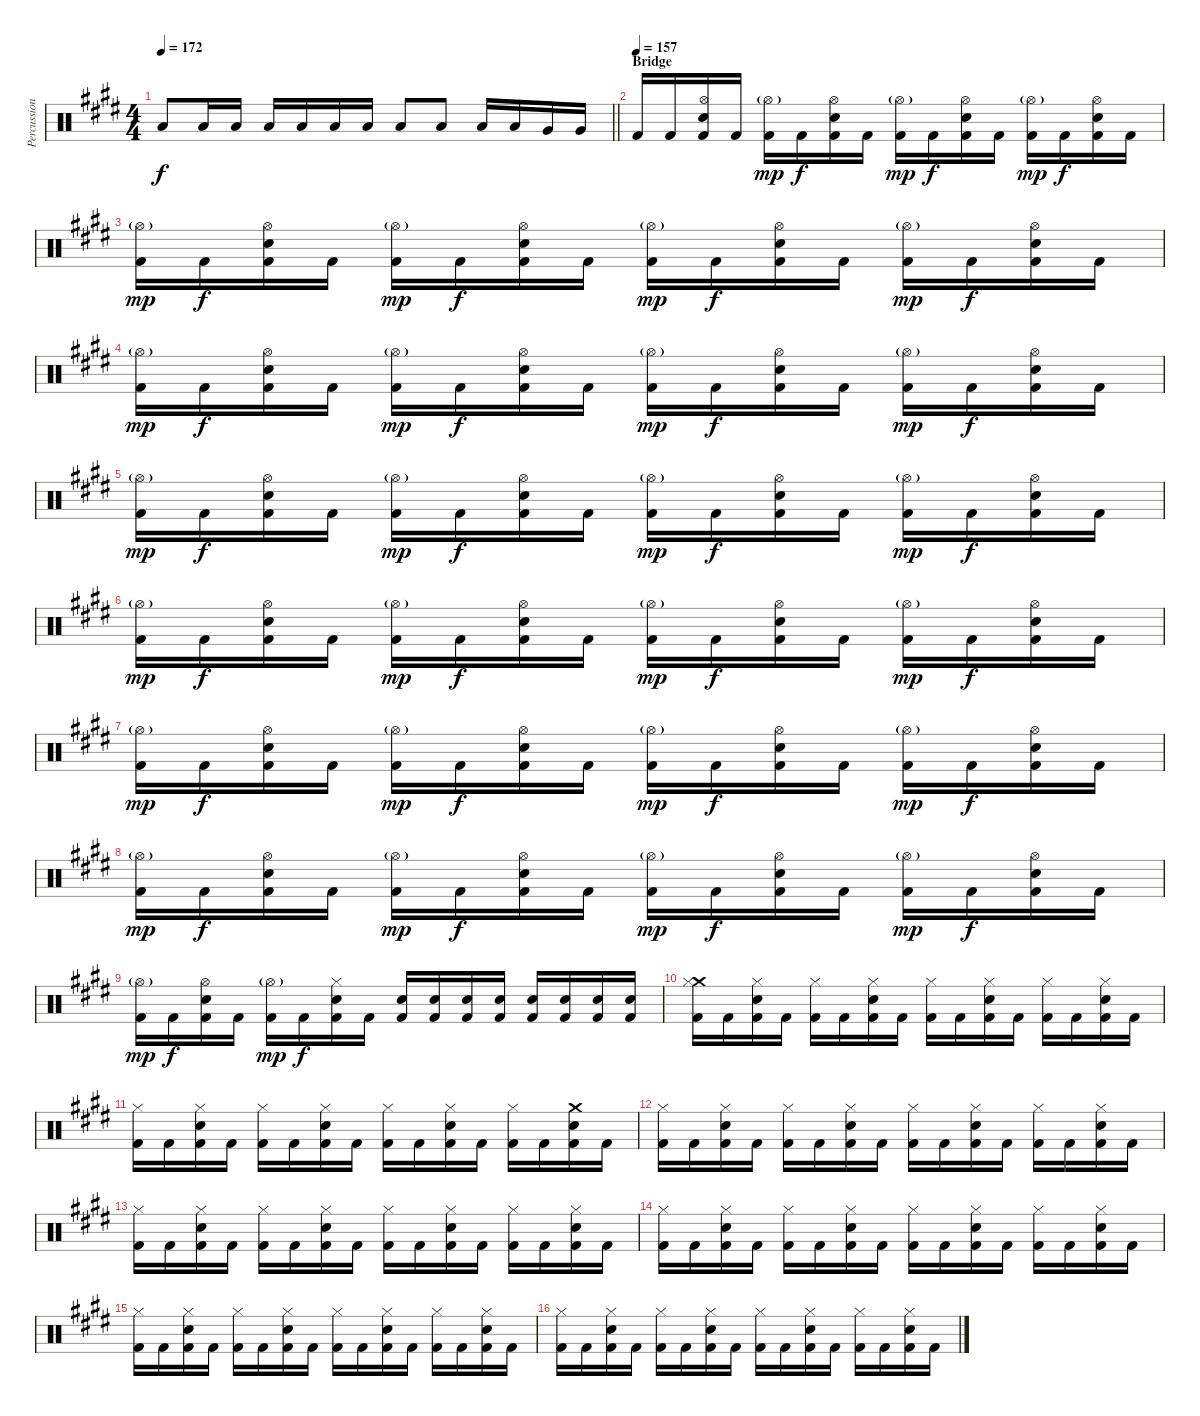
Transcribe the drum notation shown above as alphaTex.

\track ("Percussion (Thomen Stauch)" "Percussion") {instrument percussion}
\staff {score}
\articulation defaults
\ts (4 4)
\tempo 172
\clef neutral
\barLineRight lightlight
\ks c#minor "Low Tom (hit)".8{dy f} "Low Tom (hit)".16 "Low Tom (hit)".16 "Low Tom (hit)".16 "Low Tom (hit)".16 "Low Tom (hit)".16 "Low Tom (hit)".16 "Low Tom (hit)".8 "Low Tom (hit)".8 "Low Tom (hit)".16 "Low Tom (hit)".16 "Very Low Tom (hit)".16 "Very Low Tom (hit)".16
|
\section ("" "Bridge")
\tempo (157)
"Kick (hit) 2".16 "Kick (hit) 2".16 ("Hi-Hat (open)" "Snare (hit) 2" "Kick (hit) 2").16 "Kick (hit) 2".16 ("Hi-Hat (open)"{g} "Kick (hit) 2").16{dy mp} "Kick (hit) 2".16{dy f} ("Hi-Hat (open)" "Snare (hit) 2" "Kick (hit) 2").16 "Kick (hit) 2".16 ("Hi-Hat (open)"{g} "Kick (hit) 2").16{dy mp} "Kick (hit) 2".16{dy f} ("Hi-Hat (open)" "Snare (hit) 2" "Kick (hit) 2").16 "Kick (hit) 2".16 ("Hi-Hat (open)"{g} "Kick (hit) 2").16{dy mp} "Kick (hit) 2".16{dy f} ("Hi-Hat (open)" "Snare (hit) 2" "Kick (hit) 2").16 "Kick (hit) 2".16 |
("Hi-Hat (open)"{g} "Kick (hit) 2").16{dy mp} "Kick (hit) 2".16{dy f} ("Hi-Hat (open)" "Snare (hit) 2" "Kick (hit) 2").16 "Kick (hit) 2".16 ("Hi-Hat (open)"{g} "Kick (hit) 2").16{dy mp} "Kick (hit) 2".16{dy f} ("Hi-Hat (open)" "Snare (hit) 2" "Kick (hit) 2").16 "Kick (hit) 2".16 ("Hi-Hat (open)"{g} "Kick (hit) 2").16{dy mp} "Kick (hit) 2".16{dy f} ("Hi-Hat (open)" "Snare (hit) 2" "Kick (hit) 2").16 "Kick (hit) 2".16 ("Hi-Hat (open)"{g} "Kick (hit) 2").16{dy mp} "Kick (hit) 2".16{dy f} ("Hi-Hat (open)" "Snare (hit) 2" "Kick (hit) 2").16 "Kick (hit) 2".16 |
("Hi-Hat (open)"{g} "Kick (hit) 2").16{dy mp} "Kick (hit) 2".16{dy f} ("Hi-Hat (open)" "Snare (hit) 2" "Kick (hit) 2").16 "Kick (hit) 2".16 ("Hi-Hat (open)"{g} "Kick (hit) 2").16{dy mp} "Kick (hit) 2".16{dy f} ("Hi-Hat (open)" "Snare (hit) 2" "Kick (hit) 2").16 "Kick (hit) 2".16 ("Hi-Hat (open)"{g} "Kick (hit) 2").16{dy mp} "Kick (hit) 2".16{dy f} ("Hi-Hat (open)" "Snare (hit) 2" "Kick (hit) 2").16 "Kick (hit) 2".16 ("Hi-Hat (open)"{g} "Kick (hit) 2").16{dy mp} "Kick (hit) 2".16{dy f} ("Hi-Hat (open)" "Snare (hit) 2" "Kick (hit) 2").16 "Kick (hit) 2".16 |
("Hi-Hat (open)"{g} "Kick (hit) 2").16{dy mp} "Kick (hit) 2".16{dy f} ("Hi-Hat (open)" "Snare (hit) 2" "Kick (hit) 2").16 "Kick (hit) 2".16 ("Hi-Hat (open)"{g} "Kick (hit) 2").16{dy mp} "Kick (hit) 2".16{dy f} ("Hi-Hat (open)" "Snare (hit) 2" "Kick (hit) 2").16 "Kick (hit) 2".16 ("Hi-Hat (open)"{g} "Kick (hit) 2").16{dy mp} "Kick (hit) 2".16{dy f} ("Hi-Hat (open)" "Snare (hit) 2" "Kick (hit) 2").16 "Kick (hit) 2".16 ("Hi-Hat (open)"{g} "Kick (hit) 2").16{dy mp} "Kick (hit) 2".16{dy f} ("Hi-Hat (open)" "Snare (hit) 2" "Kick (hit) 2").16 "Kick (hit) 2".16 |
("Hi-Hat (open)"{g} "Kick (hit) 2").16{dy mp} "Kick (hit) 2".16{dy f} ("Hi-Hat (open)" "Snare (hit) 2" "Kick (hit) 2").16 "Kick (hit) 2".16 ("Hi-Hat (open)"{g} "Kick (hit) 2").16{dy mp} "Kick (hit) 2".16{dy f} ("Hi-Hat (open)" "Snare (hit) 2" "Kick (hit) 2").16 "Kick (hit) 2".16 ("Hi-Hat (open)"{g} "Kick (hit) 2").16{dy mp} "Kick (hit) 2".16{dy f} ("Hi-Hat (open)" "Snare (hit) 2" "Kick (hit) 2").16 "Kick (hit) 2".16 ("Hi-Hat (open)"{g} "Kick (hit) 2").16{dy mp} "Kick (hit) 2".16{dy f} ("Hi-Hat (open)" "Snare (hit) 2" "Kick (hit) 2").16 "Kick (hit) 2".16 |
("Hi-Hat (open)"{g} "Kick (hit) 2").16{dy mp} "Kick (hit) 2".16{dy f} ("Hi-Hat (open)" "Snare (hit) 2" "Kick (hit) 2").16 "Kick (hit) 2".16 ("Hi-Hat (open)"{g} "Kick (hit) 2").16{dy mp} "Kick (hit) 2".16{dy f} ("Hi-Hat (open)" "Snare (hit) 2" "Kick (hit) 2").16 "Kick (hit) 2".16 ("Hi-Hat (open)"{g} "Kick (hit) 2").16{dy mp} "Kick (hit) 2".16{dy f} ("Hi-Hat (open)" "Snare (hit) 2" "Kick (hit) 2").16 "Kick (hit) 2".16 ("Hi-Hat (open)"{g} "Kick (hit) 2").16{dy mp} "Kick (hit) 2".16{dy f} ("Hi-Hat (open)" "Snare (hit) 2" "Kick (hit) 2").16 "Kick (hit) 2".16 |
("Hi-Hat (open)"{g} "Kick (hit) 2").16{dy mp} "Kick (hit) 2".16{dy f} ("Hi-Hat (open)" "Snare (hit) 2" "Kick (hit) 2").16 "Kick (hit) 2".16 ("Hi-Hat (open)"{g} "Kick (hit) 2").16{dy mp} "Kick (hit) 2".16{dy f} ("Hi-Hat (open)" "Snare (hit) 2" "Kick (hit) 2").16 "Kick (hit) 2".16 ("Hi-Hat (open)"{g} "Kick (hit) 2").16{dy mp} "Kick (hit) 2".16{dy f} ("Hi-Hat (open)" "Snare (hit) 2" "Kick (hit) 2").16 "Kick (hit) 2".16 ("Hi-Hat (open)"{g} "Kick (hit) 2").16{dy mp} "Kick (hit) 2".16{dy f} ("Hi-Hat (open)" "Snare (hit) 2" "Kick (hit) 2").16 "Kick (hit) 2".16 |
("Hi-Hat (open)"{g} "Kick (hit) 2").16{dy mp} "Kick (hit) 2".16{dy f} ("Hi-Hat (open)" "Snare (hit) 2" "Kick (hit) 2").16 "Kick (hit) 2".16 ("Hi-Hat (open)"{g} "Kick (hit) 2").16{dy mp} "Kick (hit) 2".16{dy f} ("Hi-Hat (closed)" "Snare (hit) 2" "Kick (hit) 2").16 "Kick (hit) 2".16 ("Snare (hit) 2" "Kick (hit) 2").16 ("Snare (hit) 2" "Kick (hit) 2").16 ("Snare (hit) 2" "Kick (hit) 2").16 ("Snare (hit) 2" "Kick (hit) 2").16 ("Snare (hit) 2" "Kick (hit) 2").16 ("Snare (hit) 2" "Kick (hit) 2").16 ("Snare (hit) 2" "Kick (hit) 2").16 ("Snare (hit) 2" "Kick (hit) 2").16 |
("Crash medium (hit)" "Hi-Hat (closed)" "Kick (hit) 2").16 "Kick (hit) 2".16 ("Hi-Hat (closed)" "Snare (hit) 2" "Kick (hit) 2").16 "Kick (hit) 2".16 ("Hi-Hat (closed)" "Kick (hit) 2").16 "Kick (hit) 2".16 ("Hi-Hat (closed)" "Snare (hit) 2" "Kick (hit) 2").16 "Kick (hit) 2".16 ("Hi-Hat (closed)" "Kick (hit) 2").16 "Kick (hit) 2".16 ("Hi-Hat (closed)" "Snare (hit) 2" "Kick (hit) 2").16 "Kick (hit) 2".16 ("Hi-Hat (closed)" "Kick (hit) 2").16 "Kick (hit) 2".16 ("Hi-Hat (closed)" "Snare (hit) 2" "Kick (hit) 2").16 "Kick (hit) 2".16 |
("Hi-Hat (closed)" "Kick (hit) 2").16 "Kick (hit) 2".16 ("Hi-Hat (closed)" "Snare (hit) 2" "Kick (hit) 2").16 "Kick (hit) 2".16 ("Hi-Hat (closed)" "Kick (hit) 2").16 "Kick (hit) 2".16 ("Hi-Hat (closed)" "Snare (hit) 2" "Kick (hit) 2").16 "Kick (hit) 2".16 ("Hi-Hat (closed)" "Kick (hit) 2").16 "Kick (hit) 2".16 ("Hi-Hat (closed)" "Snare (hit) 2" "Kick (hit) 2").16 "Kick (hit) 2".16 ("Hi-Hat (closed)" "Kick (hit) 2").16 "Kick (hit) 2".16 ("Crash medium (hit)" "Snare (hit) 2" "Kick (hit) 2").16 "Kick (hit) 2".16 |
("Hi-Hat (closed)" "Kick (hit) 2").16 "Kick (hit) 2".16 ("Hi-Hat (closed)" "Snare (hit) 2" "Kick (hit) 2").16 "Kick (hit) 2".16 ("Hi-Hat (closed)" "Kick (hit) 2").16 "Kick (hit) 2".16 ("Hi-Hat (closed)" "Snare (hit) 2" "Kick (hit) 2").16 "Kick (hit) 2".16 ("Hi-Hat (closed)" "Kick (hit) 2").16 "Kick (hit) 2".16 ("Hi-Hat (closed)" "Snare (hit) 2" "Kick (hit) 2").16 "Kick (hit) 2".16 ("Hi-Hat (closed)" "Kick (hit) 2").16 "Kick (hit) 2".16 ("Hi-Hat (closed)" "Snare (hit) 2" "Kick (hit) 2").16 "Kick (hit) 2".16 |
("Hi-Hat (closed)" "Kick (hit) 2").16 "Kick (hit) 2".16 ("Hi-Hat (closed)" "Snare (hit) 2" "Kick (hit) 2").16 "Kick (hit) 2".16 ("Hi-Hat (closed)" "Kick (hit) 2").16 "Kick (hit) 2".16 ("Hi-Hat (closed)" "Snare (hit) 2" "Kick (hit) 2").16 "Kick (hit) 2".16 ("Hi-Hat (closed)" "Kick (hit) 2").16 "Kick (hit) 2".16 ("Hi-Hat (closed)" "Snare (hit) 2" "Kick (hit) 2").16 "Kick (hit) 2".16 ("Hi-Hat (closed)" "Kick (hit) 2").16 "Kick (hit) 2".16 ("Hi-Hat (closed)" "Snare (hit) 2" "Kick (hit) 2").16 "Kick (hit) 2".16 |
("Hi-Hat (closed)" "Kick (hit) 2").16 "Kick (hit) 2".16 ("Hi-Hat (closed)" "Snare (hit) 2" "Kick (hit) 2").16 "Kick (hit) 2".16 ("Hi-Hat (closed)" "Kick (hit) 2").16 "Kick (hit) 2".16 ("Hi-Hat (closed)" "Snare (hit) 2" "Kick (hit) 2").16 "Kick (hit) 2".16 ("Hi-Hat (closed)" "Kick (hit) 2").16 "Kick (hit) 2".16 ("Hi-Hat (closed)" "Snare (hit) 2" "Kick (hit) 2").16 "Kick (hit) 2".16 ("Hi-Hat (closed)" "Kick (hit) 2").16 "Kick (hit) 2".16 ("Hi-Hat (closed)" "Snare (hit) 2" "Kick (hit) 2").16 "Kick (hit) 2".16 |
("Hi-Hat (closed)" "Kick (hit) 2").16 "Kick (hit) 2".16 ("Hi-Hat (closed)" "Snare (hit) 2" "Kick (hit) 2").16 "Kick (hit) 2".16 ("Hi-Hat (closed)" "Kick (hit) 2").16 "Kick (hit) 2".16 ("Hi-Hat (closed)" "Snare (hit) 2" "Kick (hit) 2").16 "Kick (hit) 2".16 ("Hi-Hat (closed)" "Kick (hit) 2").16 "Kick (hit) 2".16 ("Hi-Hat (closed)" "Snare (hit) 2" "Kick (hit) 2").16 "Kick (hit) 2".16 ("Hi-Hat (closed)" "Kick (hit) 2").16 "Kick (hit) 2".16 ("Hi-Hat (closed)" "Snare (hit) 2" "Kick (hit) 2").16 "Kick (hit) 2".16 |
("Hi-Hat (closed)" "Kick (hit) 2").16 "Kick (hit) 2".16 ("Hi-Hat (closed)" "Snare (hit) 2" "Kick (hit) 2").16 "Kick (hit) 2".16 ("Hi-Hat (closed)" "Kick (hit) 2").16 "Kick (hit) 2".16 ("Hi-Hat (closed)" "Snare (hit) 2" "Kick (hit) 2").16 "Kick (hit) 2".16 ("Hi-Hat (closed)" "Kick (hit) 2").16 "Kick (hit) 2".16 ("Hi-Hat (closed)" "Snare (hit) 2" "Kick (hit) 2").16 "Kick (hit) 2".16 ("Hi-Hat (closed)" "Kick (hit) 2").16 "Kick (hit) 2".16 ("Hi-Hat (closed)" "Snare (hit) 2" "Kick (hit) 2").16 "Kick (hit) 2".16
